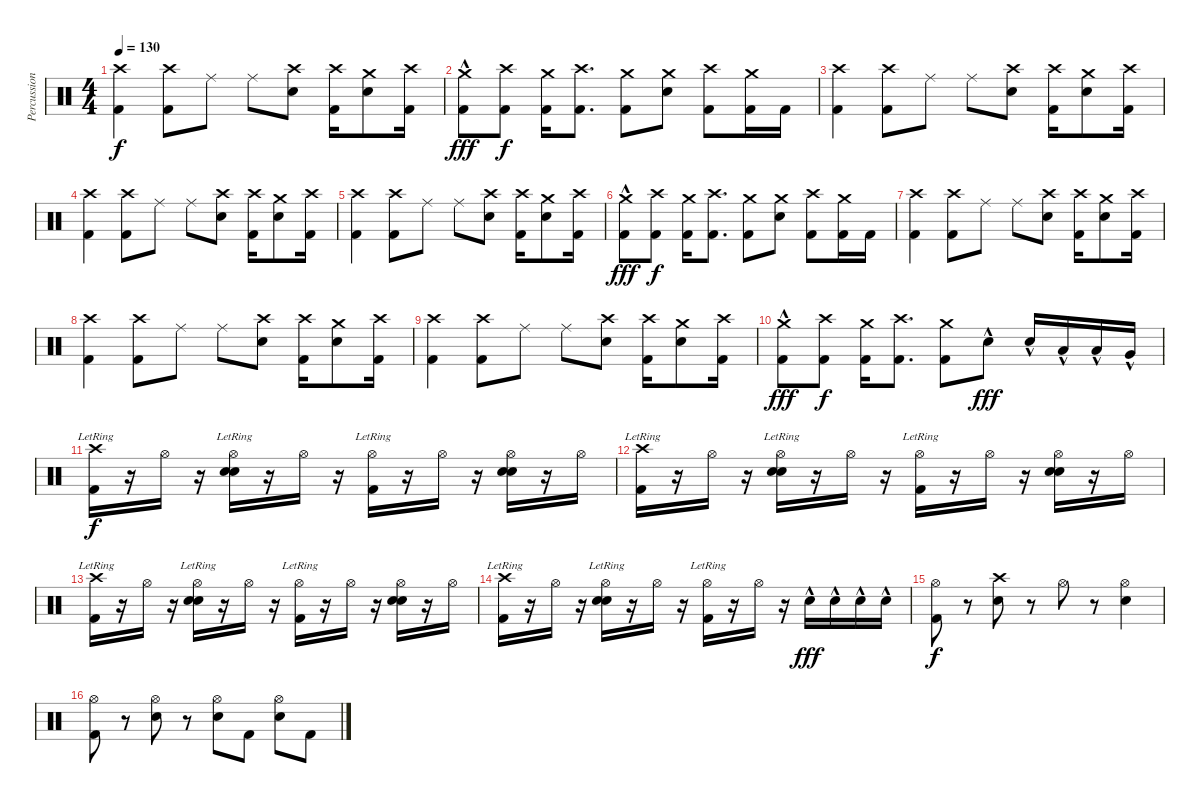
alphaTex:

\track ("Percussion" "Percussion") {instrument percussion}
\staff {score}
\articulation defaults
\ts (4 4)
\tempo 130
\clef neutral
\ks c
("Crash high (hit)" "Kick (hit) 2").4{dy f} ("Crash high (hit)" "Kick (hit) 2").8 "Ride (middle)".8 "Ride (middle)".8 ("Crash high (hit)" "Snare (hit) 2").8 ("Crash high (hit)" "Kick (hit) 2").16 ("Crash medium (hit)" "Snare (hit) 2").8 ("Crash high (hit)" "Kick (hit) 2").16 |
("Crash medium (hit)"{hac} "Kick (hit) 2").8{dy fff} ("Crash high (hit)" "Kick (hit) 2").8{dy f} ("Crash medium (hit)" "Kick (hit) 2").16 ("Crash high (hit)" "Kick (hit) 2").8{d} ("Crash medium (hit)" "Kick (hit) 2").8 ("Crash medium (hit)" "Snare (hit) 2").8 ("Crash high (hit)" "Kick (hit) 2").8 ("Crash medium (hit)" "Kick (hit) 2").16 "Kick (hit) 2".16 |
("Crash high (hit)" "Kick (hit) 2").4 ("Crash high (hit)" "Kick (hit) 2").8 "Ride (middle)".8 "Ride (middle)".8 ("Crash high (hit)" "Snare (hit) 2").8 ("Crash high (hit)" "Kick (hit) 2").16 ("Crash medium (hit)" "Snare (hit) 2").8 ("Crash high (hit)" "Kick (hit) 2").16 |
("Crash high (hit)" "Kick (hit) 2").4 ("Crash high (hit)" "Kick (hit) 2").8 "Ride (middle)".8 "Ride (middle)".8 ("Crash high (hit)" "Snare (hit) 2").8 ("Crash high (hit)" "Kick (hit) 2").16 ("Crash medium (hit)" "Snare (hit) 2").8 ("Crash high (hit)" "Kick (hit) 2").16 |
("Crash high (hit)" "Kick (hit) 2").4 ("Crash high (hit)" "Kick (hit) 2").8 "Ride (middle)".8 "Ride (middle)".8 ("Crash high (hit)" "Snare (hit) 2").8 ("Crash high (hit)" "Kick (hit) 2").16 ("Crash medium (hit)" "Snare (hit) 2").8 ("Crash high (hit)" "Kick (hit) 2").16 |
("Crash medium (hit)"{hac} "Kick (hit) 2").8{dy fff} ("Crash high (hit)" "Kick (hit) 2").8{dy f} ("Crash medium (hit)" "Kick (hit) 2").16 ("Crash high (hit)" "Kick (hit) 2").8{d} ("Crash medium (hit)" "Kick (hit) 2").8 ("Crash medium (hit)" "Snare (hit) 2").8 ("Crash high (hit)" "Kick (hit) 2").8 ("Crash medium (hit)" "Kick (hit) 2").16 "Kick (hit) 2".16 |
("Crash high (hit)" "Kick (hit) 2").4 ("Crash high (hit)" "Kick (hit) 2").8 "Ride (middle)".8 "Ride (middle)".8 ("Crash high (hit)" "Snare (hit) 2").8 ("Crash high (hit)" "Kick (hit) 2").16 ("Crash medium (hit)" "Snare (hit) 2").8 ("Crash high (hit)" "Kick (hit) 2").16 |
("Crash high (hit)" "Kick (hit) 2").4 ("Crash high (hit)" "Kick (hit) 2").8 "Ride (middle)".8 "Ride (middle)".8 ("Crash high (hit)" "Snare (hit) 2").8 ("Crash high (hit)" "Kick (hit) 2").16 ("Crash medium (hit)" "Snare (hit) 2").8 ("Crash high (hit)" "Kick (hit) 2").16 |
("Crash high (hit)" "Kick (hit) 2").4 ("Crash high (hit)" "Kick (hit) 2").8 "Ride (middle)".8 "Ride (middle)".8 ("Crash high (hit)" "Snare (hit) 2").8 ("Crash high (hit)" "Kick (hit) 2").16 ("Crash medium (hit)" "Snare (hit) 2").8 ("Crash high (hit)" "Kick (hit) 2").16 |
("Crash medium (hit)"{hac} "Kick (hit) 2").8{dy fff} ("Crash high (hit)" "Kick (hit) 2").8{dy f} ("Crash medium (hit)" "Kick (hit) 2").16 ("Crash high (hit)" "Kick (hit) 2").8{d} ("Crash medium (hit)" "Kick (hit) 2").8 "Snare (hit) 2"{hac}.8{dy fff} "Snare (hit) 2"{hac}.16 "Low Tom (hit)"{hac}.16 "Low Tom (hit)"{hac}.16 "Very Low Tom (hit)"{hac}.16 |
("Crash high (hit)"{lr} "Kick (hit) 2").16{dy f} r.16 "Hi-Hat (open)".16 r.16 ("Hi-Hat (open)"{lr} "Snare (hit) 2" "Electric Snare (hit)").16 r.16 "Hi-Hat (open)".16 r.16 ("Hi-Hat (open)"{lr} "Kick (hit) 2").16 r.16 "Hi-Hat (open)".16 r.16 ("Hi-Hat (open)" "Snare (hit) 2" "Electric Snare (hit)").16 r.16 "Hi-Hat (open)".16 |
("Crash high (hit)"{lr} "Kick (hit) 2").16 r.16 "Hi-Hat (open)".16 r.16 ("Hi-Hat (open)"{lr} "Snare (hit) 2" "Electric Snare (hit)").16 r.16 "Hi-Hat (open)".16 r.16 ("Hi-Hat (open)"{lr} "Kick (hit) 2").16 r.16 "Hi-Hat (open)".16 r.16 ("Hi-Hat (open)" "Snare (hit) 2" "Electric Snare (hit)").16 r.16 "Hi-Hat (open)".16 |
("Crash high (hit)"{lr} "Kick (hit) 2").16 r.16 "Hi-Hat (open)".16 r.16 ("Hi-Hat (open)"{lr} "Snare (hit) 2" "Electric Snare (hit)").16 r.16 "Hi-Hat (open)".16 r.16 ("Hi-Hat (open)"{lr} "Kick (hit) 2").16 r.16 "Hi-Hat (open)".16 r.16 ("Hi-Hat (open)" "Snare (hit) 2" "Electric Snare (hit)").16 r.16 "Hi-Hat (open)".16 |
("Crash high (hit)"{lr} "Kick (hit) 2").16 r.16 "Hi-Hat (open)".16 r.16 ("Hi-Hat (open)"{lr} "Snare (hit) 2" "Electric Snare (hit)").16 r.16 "Hi-Hat (open)".16 r.16 ("Hi-Hat (open)"{lr} "Kick (hit) 2").16 r.16 "Hi-Hat (open)".16 r.16 "Snare (hit) 2"{hac}.16{dy fff} "Snare (hit) 2"{hac}.16 "Snare (hit) 2"{hac}.16 "Snare (hit) 2"{hac}.16 |
("Hi-Hat (open)" "Kick (hit) 2").8{dy f} r.8 ("Crash high (hit)" "Snare (hit) 2").8 r.8 "Hi-Hat (open)".8 r.8 ("Hi-Hat (open)" "Snare (hit) 2").4 |
("Hi-Hat (open)" "Kick (hit) 2").8 r.8 ("Hi-Hat (open)" "Snare (hit) 2").8 r.8 ("Hi-Hat (open)" "Snare (hit) 2").8 "Kick (hit) 2".8 ("Hi-Hat (open)" "Snare (hit) 2").8 "Kick (hit) 2".8
